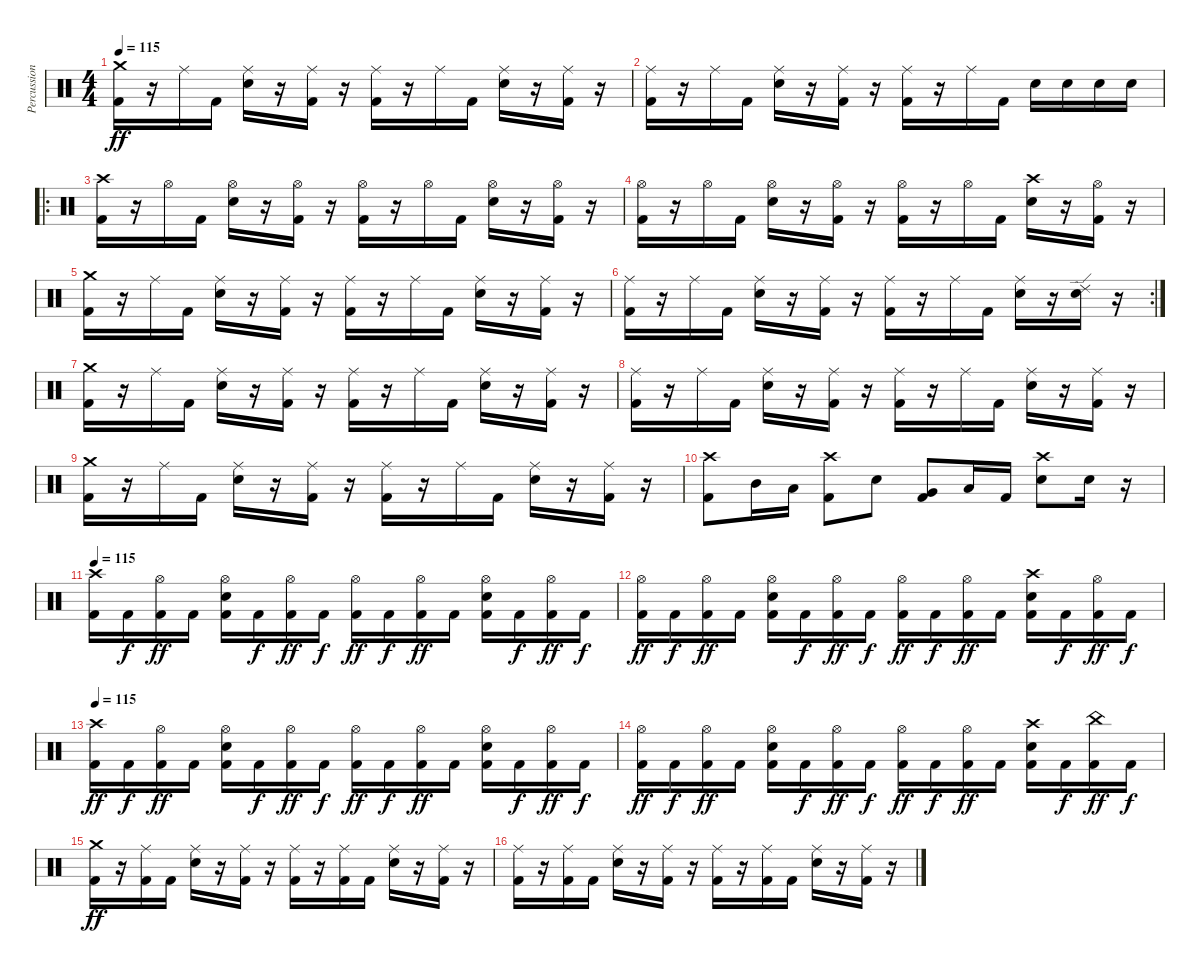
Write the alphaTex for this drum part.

\track ("Percussion" "Percussion") {instrument percussion}
\staff {score}
\articulation defaults
\ts (4 4)
\tempo 115
\clef neutral
\ks c
("Crash medium (hit)" "Kick (hit) 2").16{dy ff} r.16 "Ride (middle)".16 "Kick (hit) 2".16 ("Ride (middle)" "Snare (hit) 2").16 r.16 ("Ride (middle)" "Kick (hit) 2").16 r.16 ("Ride (middle)" "Kick (hit) 2").16 r.16 "Ride (middle)".16 "Kick (hit) 2".16 ("Ride (middle)" "Snare (hit) 2").16 r.16 ("Ride (middle)" "Kick (hit) 2").16 r.16 |
("Ride (middle)" "Kick (hit) 2").16 r.16 "Ride (middle)".16 "Kick (hit) 2".16 ("Ride (middle)" "Snare (hit) 2").16 r.16 ("Ride (middle)" "Kick (hit) 2").16 r.16 ("Ride (middle)" "Kick (hit) 2").16 r.16 "Ride (middle)".16 "Kick (hit) 2".16 "Snare (hit) 2".16 "Snare (hit) 2".16 "Snare (hit) 2".16 "Snare (hit) 2".16 |
\ro
("Crash high (hit)" "Kick (hit) 2").16 r.16 "Hi-Hat (open)".16 "Kick (hit) 2".16 ("Hi-Hat (open)" "Snare (hit) 2").16 r.16 ("Hi-Hat (open)" "Kick (hit) 2").16 r.16 ("Hi-Hat (open)" "Kick (hit) 2").16 r.16 "Hi-Hat (open)".16 "Kick (hit) 2".16 ("Hi-Hat (open)" "Snare (hit) 2").16 r.16 ("Hi-Hat (open)" "Kick (hit) 2").16 r.16 |
("Hi-Hat (open)" "Kick (hit) 2").16 r.16 "Hi-Hat (open)".16 "Kick (hit) 2".16 ("Hi-Hat (open)" "Snare (hit) 2").16 r.16 ("Hi-Hat (open)" "Kick (hit) 2").16 r.16 ("Hi-Hat (open)" "Kick (hit) 2").16 r.16 "Hi-Hat (open)".16 "Kick (hit) 2".16 ("Crash high (hit)" "Snare (hit) 2").16 r.16 ("Hi-Hat (open)" "Kick (hit) 2").16 r.16 |
("Crash medium (hit)" "Kick (hit) 2").16 r.16 "Ride (middle)".16 "Kick (hit) 2".16 ("Ride (middle)" "Snare (hit) 2").16 r.16 ("Ride (middle)" "Kick (hit) 2").16 r.16 ("Ride (middle)" "Kick (hit) 2").16 r.16 "Ride (middle)".16 "Kick (hit) 2".16 ("Ride (middle)" "Snare (hit) 2").16 r.16 ("Ride (middle)" "Kick (hit) 2").16 r.16 |
\rc 2
("Ride (middle)" "Kick (hit) 2").16 r.16 "Ride (middle)".16 "Kick (hit) 2".16 ("Ride (middle)" "Snare (hit) 2").16 r.16 ("Ride (middle)" "Kick (hit) 2").16 r.16 ("Ride (middle)" "Kick (hit) 2").16 r.16 "Ride (middle)".16 "Kick (hit) 2".16 ("Ride (middle)" "Snare (hit) 2").16 r.16 ("Ride (edge) 2" "Snare (hit) 2").16 r.16 |
("Crash medium (hit)" "Kick (hit) 2").16 r.16 "Ride (middle)".16 "Kick (hit) 2".16 ("Ride (middle)" "Snare (hit) 2").16 r.16 ("Ride (middle)" "Kick (hit) 2").16 r.16 ("Ride (middle)" "Kick (hit) 2").16 r.16 "Ride (middle)".16 "Kick (hit) 2".16 ("Ride (middle)" "Snare (hit) 2").16 r.16 ("Ride (middle)" "Kick (hit) 2").16 r.16 |
("Ride (middle)" "Kick (hit) 2").16 r.16 "Ride (middle)".16 "Kick (hit) 2".16 ("Ride (middle)" "Snare (hit) 2").16 r.16 ("Ride (middle)" "Kick (hit) 2").16 r.16 ("Ride (middle)" "Kick (hit) 2").16 r.16 "Ride (middle)".16 "Kick (hit) 2".16 ("Ride (middle)" "Snare (hit) 2").16 r.16 ("Ride (middle)" "Kick (hit) 2").16 r.16 |
("Crash medium (hit)" "Kick (hit) 2").16 r.16 "Ride (middle)".16 "Kick (hit) 2".16 ("Ride (middle)" "Snare (hit) 2").16 r.16 ("Ride (middle)" "Kick (hit) 2").16 r.16 ("Ride (middle)" "Kick (hit) 2").16 r.16 "Ride (middle)".16 "Kick (hit) 2".16 ("Ride (middle)" "Snare (hit) 2").16 r.16 ("Ride (middle)" "Kick (hit) 2").16 r.16 |
("Crash high (hit)" "Kick (hit) 2").8 "Mid Tom (hit)".16 "Low Tom (hit)".16 ("Crash high (hit)" "Kick (hit) 2").8 "Snare (hit) 2".8 ("Very Low Tom (hit)" "Kick (hit) 2").8 "Low Floor Tom (hit)".16 "Kick (hit) 2".16 ("Crash high (hit)" "Snare (hit) 2").8 "Snare (hit) 2".16 r.16 |
\tempo 115
("Crash high (hit)" "Kick (hit) 2").16 "Kick (hit) 2".16{dy f} ("Hi-Hat (open)" "Kick (hit) 2").16{dy ff} "Kick (hit) 2".16 ("Hi-Hat (open)" "Snare (hit) 2" "Kick (hit) 2").16 "Kick (hit) 2".16{dy f} ("Hi-Hat (open)" "Kick (hit) 2").16{dy ff} "Kick (hit) 2".16{dy f} ("Hi-Hat (open)" "Kick (hit) 2").16{dy ff} "Kick (hit) 2".16{dy f} ("Hi-Hat (open)" "Kick (hit) 2").16{dy ff} "Kick (hit) 2".16 ("Hi-Hat (open)" "Snare (hit) 2" "Kick (hit) 2").16 "Kick (hit) 2".16{dy f} ("Hi-Hat (open)" "Kick (hit) 2").16{dy ff} "Kick (hit) 2".16{dy f} |
("Hi-Hat (open)" "Kick (hit) 2").16{dy ff} "Kick (hit) 2".16{dy f} ("Hi-Hat (open)" "Kick (hit) 2").16{dy ff} "Kick (hit) 2".16 ("Hi-Hat (open)" "Snare (hit) 2" "Kick (hit) 2").16 "Kick (hit) 2".16{dy f} ("Hi-Hat (open)" "Kick (hit) 2").16{dy ff} "Kick (hit) 2".16{dy f} ("Hi-Hat (open)" "Kick (hit) 2").16{dy ff} "Kick (hit) 2".16{dy f} ("Hi-Hat (open)" "Kick (hit) 2").16{dy ff} "Kick (hit) 2".16 ("Crash high (hit)" "Snare (hit) 2" "Kick (hit) 2").16 "Kick (hit) 2".16{dy f} ("Hi-Hat (open)" "Kick (hit) 2").16{dy ff} "Kick (hit) 2".16{dy f} |
\tempo 115
("Crash high (hit)" "Kick (hit) 2").16{dy ff} "Kick (hit) 2".16{dy f} ("Hi-Hat (open)" "Kick (hit) 2").16{dy ff} "Kick (hit) 2".16 ("Hi-Hat (open)" "Snare (hit) 2" "Kick (hit) 2").16 "Kick (hit) 2".16{dy f} ("Hi-Hat (open)" "Kick (hit) 2").16{dy ff} "Kick (hit) 2".16{dy f} ("Hi-Hat (open)" "Kick (hit) 2").16{dy ff} "Kick (hit) 2".16{dy f} ("Hi-Hat (open)" "Kick (hit) 2").16{dy ff} "Kick (hit) 2".16 ("Hi-Hat (open)" "Snare (hit) 2" "Kick (hit) 2").16 "Kick (hit) 2".16{dy f} ("Hi-Hat (open)" "Kick (hit) 2").16{dy ff} "Kick (hit) 2".16{dy f} |
("Hi-Hat (open)" "Kick (hit) 2").16{dy ff} "Kick (hit) 2".16{dy f} ("Hi-Hat (open)" "Kick (hit) 2").16{dy ff} "Kick (hit) 2".16 ("Hi-Hat (open)" "Snare (hit) 2" "Kick (hit) 2").16 "Kick (hit) 2".16{dy f} ("Hi-Hat (open)" "Kick (hit) 2").16{dy ff} "Kick (hit) 2".16{dy f} ("Hi-Hat (open)" "Kick (hit) 2").16{dy ff} "Kick (hit) 2".16{dy f} ("Hi-Hat (open)" "Kick (hit) 2").16{dy ff} "Kick (hit) 2".16 ("Crash high (hit)" "Snare (hit) 2" "Kick (hit) 2").16 "Kick (hit) 2".16{dy f} ("China (hit)" "Kick (hit) 2").16{dy ff} "Kick (hit) 2".16{dy f} |
("Crash medium (hit)" "Kick (hit) 2").16{dy ff} r.16 ("Ride (middle)" "Kick (hit) 2").16 "Kick (hit) 2".16 ("Ride (middle)" "Snare (hit) 2").16 r.16 ("Ride (middle)" "Kick (hit) 2").16 r.16 ("Ride (middle)" "Kick (hit) 2").16 r.16 ("Ride (middle)" "Kick (hit) 2").16 "Kick (hit) 2".16 ("Ride (middle)" "Snare (hit) 2").16 r.16 ("Ride (middle)" "Kick (hit) 2").16 r.16 |
("Ride (middle)" "Kick (hit) 2").16 r.16 ("Ride (middle)" "Kick (hit) 2").16 "Kick (hit) 2".16 ("Ride (middle)" "Snare (hit) 2").16 r.16 ("Ride (middle)" "Kick (hit) 2").16 r.16 ("Ride (middle)" "Kick (hit) 2").16 r.16 ("Ride (middle)" "Kick (hit) 2").16 "Kick (hit) 2".16 ("Ride (middle)" "Snare (hit) 2").16 r.16 ("Ride (middle)" "Kick (hit) 2").16 r.16
